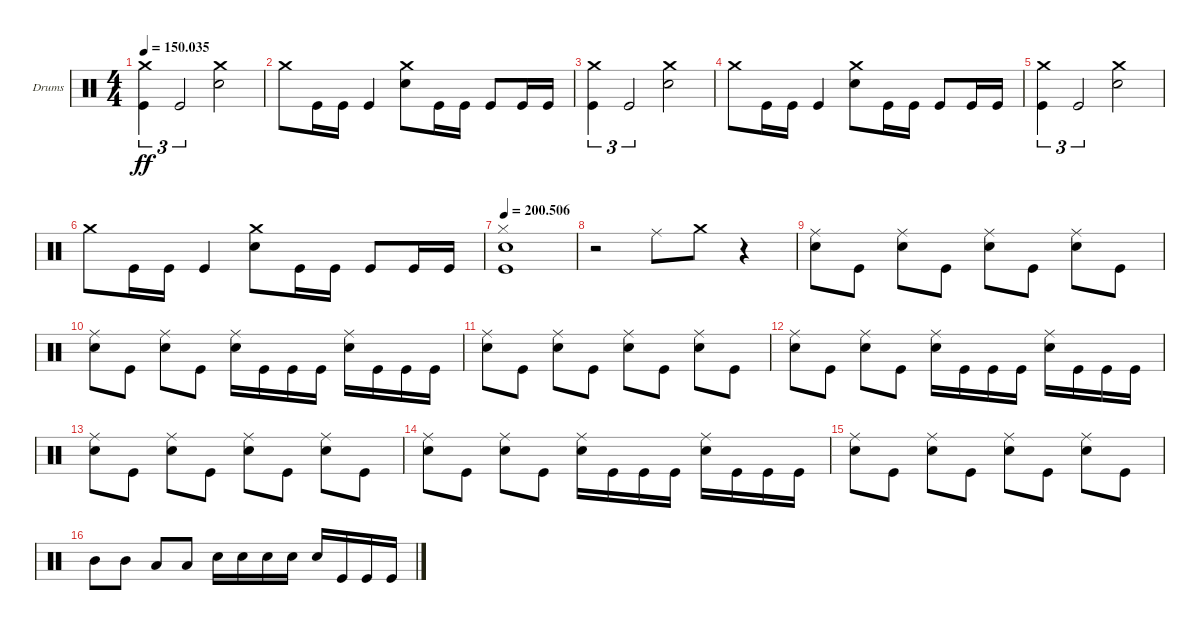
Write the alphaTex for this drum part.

\bracketExtendMode groupsimilarinstruments
\firstSystemTrackNameOrientation horizontal
\otherSystemsTrackNameOrientation horizontal
\track ("Drumkit" "Drums") {instrument percussion}
\staff {score}
\articulation defaults
\ts (4 4)
\tempo
150.035
\accidentals auto
\clef neutral
\ottava regular
\simile none
\ks c
("Crash medium (hit)" "Kick (hit)").4{tu (3 2) dy ff} "Kick (hit)".2{tu (3 2)} ("Crash medium (hit)" "Snare (hit) 2").2 |
"Crash medium (hit)".8 "Kick (hit)".16 "Kick (hit)".16 "Kick (hit)".4 ("Crash medium (hit)" "Snare (hit) 2").8 "Kick (hit)".16 "Kick (hit)".16 "Kick (hit)".8 "Kick (hit)".16 "Kick (hit)".16 |
("Crash medium (hit)" "Kick (hit)").4{tu (3 2)} "Kick (hit)".2{tu (3 2)} ("Crash medium (hit)" "Snare (hit) 2").2 |
"Crash medium (hit)".8 "Kick (hit)".16 "Kick (hit)".16 "Kick (hit)".4 ("Crash medium (hit)" "Snare (hit) 2").8 "Kick (hit)".16 "Kick (hit)".16 "Kick (hit)".8 "Kick (hit)".16 "Kick (hit)".16 |
("Crash medium (hit)" "Kick (hit)").4{tu (3 2)} "Kick (hit)".2{tu (3 2)} ("Crash medium (hit)" "Snare (hit) 2").2 |
"Crash medium (hit)".8 "Kick (hit)".16 "Kick (hit)".16 "Kick (hit)".4 ("Crash medium (hit)" "Snare (hit) 2").8 "Kick (hit)".16 "Kick (hit)".16 "Kick (hit)".8 "Kick (hit)".16 "Kick (hit)".16 |
\tempo
200.506 ("Kick (hit)" "Snare (hit) 2" "Hi-Hat (closed)").1 |
r.2 "Ride (middle)".8 "Crash medium (hit)".8 r.4 |
("Snare (hit) 2" "Ride (middle)").8 "Kick (hit)".8 ("Snare (hit) 2" "Ride (middle)").8 "Kick (hit)".8 ("Snare (hit) 2" "Ride (middle)").8 "Kick (hit)".8 ("Snare (hit) 2" "Ride (middle)").8 "Kick (hit)".8 |
("Snare (hit) 2" "Ride (middle)").8 "Kick (hit)".8 ("Snare (hit) 2" "Ride (middle)").8 "Kick (hit)".8 ("Snare (hit) 2" "Ride (middle)").16 "Kick (hit)".16 "Kick (hit)".16 "Kick (hit)".16 ("Snare (hit) 2" "Ride (middle)").16 "Kick (hit)".16 "Kick (hit)".16 "Kick (hit)".16 |
("Snare (hit) 2" "Ride (middle)").8 "Kick (hit)".8 ("Snare (hit) 2" "Ride (middle)").8 "Kick (hit)".8 ("Snare (hit) 2" "Ride (middle)").8 "Kick (hit)".8 ("Snare (hit) 2" "Ride (middle)").8 "Kick (hit)".8 |
("Snare (hit) 2" "Ride (middle)").8 "Kick (hit)".8 ("Snare (hit) 2" "Ride (middle)").8 "Kick (hit)".8 ("Snare (hit) 2" "Ride (middle)").16 "Kick (hit)".16 "Kick (hit)".16 "Kick (hit)".16 ("Snare (hit) 2" "Ride (middle)").16 "Kick (hit)".16 "Kick (hit)".16 "Kick (hit)".16 |
("Snare (hit) 2" "Ride (middle)").8 "Kick (hit)".8 ("Snare (hit) 2" "Ride (middle)").8 "Kick (hit)".8 ("Snare (hit) 2" "Ride (middle)").8 "Kick (hit)".8 ("Snare (hit) 2" "Ride (middle)").8 "Kick (hit)".8 |
("Snare (hit) 2" "Ride (middle)").8 "Kick (hit)".8 ("Snare (hit) 2" "Ride (middle)").8 "Kick (hit)".8 ("Snare (hit) 2" "Ride (middle)").16 "Kick (hit)".16 "Kick (hit)".16 "Kick (hit)".16 ("Snare (hit) 2" "Ride (middle)").16 "Kick (hit)".16 "Kick (hit)".16 "Kick (hit)".16 |
("Snare (hit) 2" "Ride (middle)").8 "Kick (hit)".8 ("Snare (hit) 2" "Ride (middle)").8 "Kick (hit)".8 ("Snare (hit) 2" "Ride (middle)").8 "Kick (hit)".8 ("Snare (hit) 2" "Ride (middle)").8 "Kick (hit)".8 |
"Mid Tom (hit)".8 "Mid Tom (hit)".8 "Low Tom (hit)".8 "Low Tom (hit)".8 "Snare (hit) 2".16 "Snare (hit) 2".16 "Snare (hit) 2".16 "Snare (hit) 2".16 "Snare (hit) 2".16 "Kick (hit)".16 "Kick (hit)".16 "Kick (hit)".16
